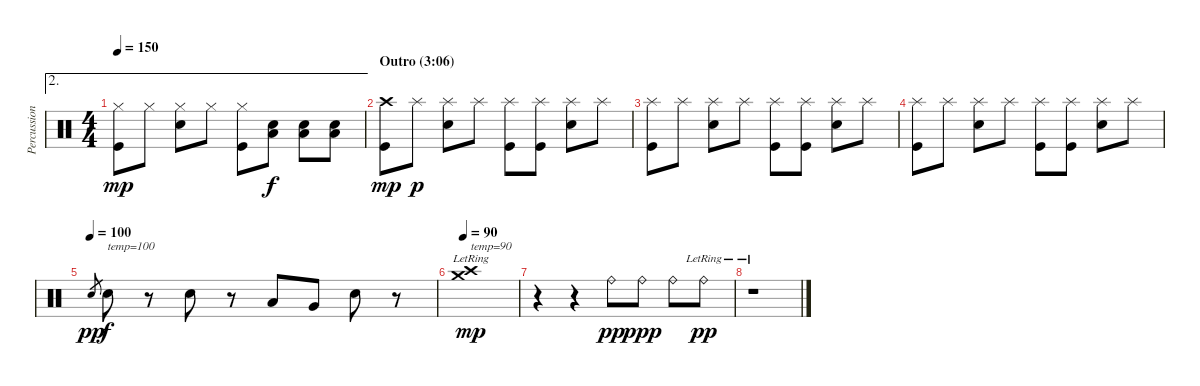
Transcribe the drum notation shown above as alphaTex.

\track ("Percussion" "Percussion") {instrument percussion}
\staff {score}
\articulation defaults
\ae 2
\ts (4 4)
\tempo 150
\clef neutral
\ks c
("Hi-Hat (closed)" "Kick (hit)").8{dy mp} "Hi-Hat (closed)".8 ("Hi-Hat (closed)" "Electric Snare (hit)").8 "Hi-Hat (closed)".8 ("Hi-Hat (closed)" "Kick (hit)").8 ("Low Tom (hit)" "Electric Snare (hit)").8{dy f} ("Low Tom (hit)" "Electric Snare (hit)").8 ("Low Tom (hit)" "Electric Snare (hit)").8 |
\section ("" "Outro (3:06)")
("Crash high (hit)" "Kick (hit)").8{dy mp} "Splash (hit)".8{dy p} ("Splash (hit)" "Electric Snare (hit)").8 "Splash (hit)".8 ("Splash (hit)" "Kick (hit)").8 ("Splash (hit)" "Kick (hit)").8 ("Splash (hit)" "Electric Snare (hit)").8 "Splash (hit)".8 |
("Splash (hit)" "Kick (hit)").8 "Splash (hit)".8 ("Splash (hit)" "Electric Snare (hit)").8 "Splash (hit)".8 ("Splash (hit)" "Kick (hit)").8 ("Splash (hit)" "Kick (hit)").8 ("Splash (hit)" "Electric Snare (hit)").8 "Splash (hit)".8 |
("Splash (hit)" "Kick (hit)").8 "Splash (hit)".8 ("Splash (hit)" "Electric Snare (hit)").8 "Splash (hit)".8 ("Splash (hit)" "Kick (hit)").8 ("Splash (hit)" "Kick (hit)").8 ("Splash (hit)" "Electric Snare (hit)").8 "Splash (hit)".8 |
\tempo (100)
"Electric Snare (hit)".8{gr dy pp} "Electric Snare (hit)".8{txt "temp=100" dy f} r.8 "Electric Snare (hit)".8 r.8 "Low Tom (hit)".8 "Very Low Tom (hit)".8 "Electric Snare (hit)".8 r.8 |
\tempo 90
("Crash high (hit)"{lr} "Crash medium (hit)"{lr}).1{txt "temp=90" dy mp} |
r.4 r.4 "Ride (bell)".8{dy pp} "Ride (bell)".8{dy ppp} "Ride (bell)".8 "Ride (bell)"{lr}.8{dy pp} |
r.1
